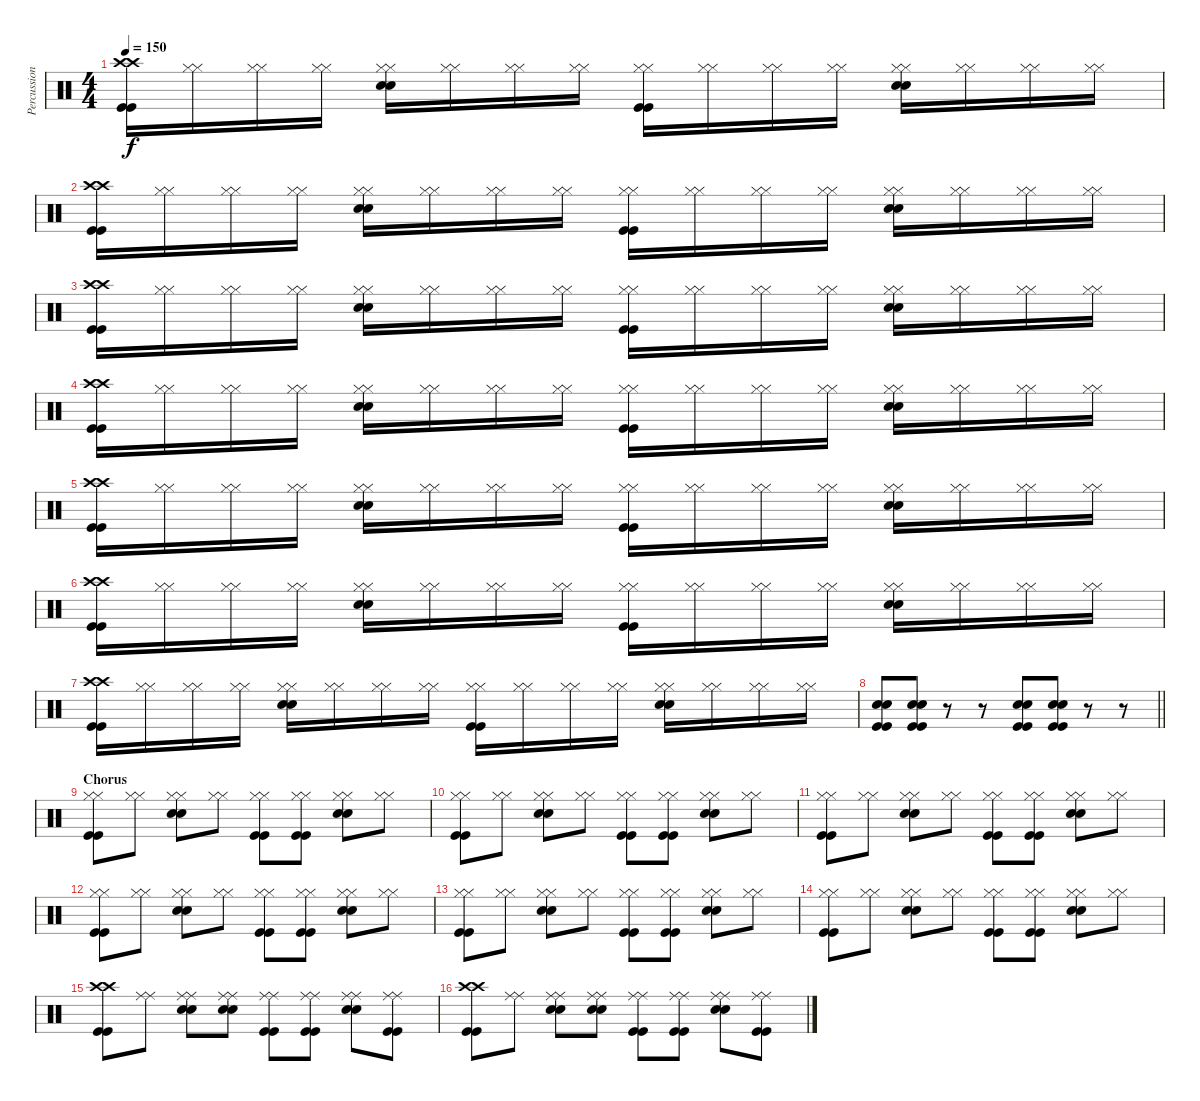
\track ("Percussion" "Percussion") {instrument percussion bank 129}
\staff
\articulation defaults
\ts (4 4)
\tempo 150
\clef neutral
\ks c
("Crash high (hit)" "Crash high (hit)" "Kick (hit)" "Kick (hit)").16{dy f} ("Hi-Hat (closed)" "Hi-Hat (closed)").16 ("Hi-Hat (closed)" "Hi-Hat (closed)").16 ("Hi-Hat (closed)" "Hi-Hat (closed)").16 ("Hi-Hat (closed)" "Hi-Hat (closed)" "Snare (hit) 2" "Snare (hit) 2").16 ("Hi-Hat (closed)" "Hi-Hat (closed)").16 ("Hi-Hat (closed)" "Hi-Hat (closed)").16 ("Hi-Hat (closed)" "Hi-Hat (closed)").16 ("Hi-Hat (closed)" "Hi-Hat (closed)" "Kick (hit)" "Kick (hit)").16 ("Hi-Hat (closed)" "Hi-Hat (closed)").16 ("Hi-Hat (closed)" "Hi-Hat (closed)").16 ("Hi-Hat (closed)" "Hi-Hat (closed)").16 ("Hi-Hat (closed)" "Hi-Hat (closed)" "Snare (hit) 2" "Snare (hit) 2").16 ("Hi-Hat (closed)" "Hi-Hat (closed)").16 ("Hi-Hat (closed)" "Hi-Hat (closed)").16 ("Hi-Hat (closed)" "Hi-Hat (closed)").16 |
("Crash high (hit)" "Crash high (hit)" "Kick (hit)" "Kick (hit)").16 ("Hi-Hat (closed)" "Hi-Hat (closed)").16 ("Hi-Hat (closed)" "Hi-Hat (closed)").16 ("Hi-Hat (closed)" "Hi-Hat (closed)").16 ("Hi-Hat (closed)" "Hi-Hat (closed)" "Snare (hit) 2" "Snare (hit) 2").16 ("Hi-Hat (closed)" "Hi-Hat (closed)").16 ("Hi-Hat (closed)" "Hi-Hat (closed)").16 ("Hi-Hat (closed)" "Hi-Hat (closed)").16 ("Hi-Hat (closed)" "Hi-Hat (closed)" "Kick (hit)" "Kick (hit)").16 ("Hi-Hat (closed)" "Hi-Hat (closed)").16 ("Hi-Hat (closed)" "Hi-Hat (closed)").16 ("Hi-Hat (closed)" "Hi-Hat (closed)").16 ("Hi-Hat (closed)" "Hi-Hat (closed)" "Snare (hit) 2" "Snare (hit) 2").16 ("Hi-Hat (closed)" "Hi-Hat (closed)").16 ("Hi-Hat (closed)" "Hi-Hat (closed)").16 ("Hi-Hat (closed)" "Hi-Hat (closed)").16 |
("Crash high (hit)" "Crash high (hit)" "Kick (hit)" "Kick (hit)").16 ("Hi-Hat (closed)" "Hi-Hat (closed)").16 ("Hi-Hat (closed)" "Hi-Hat (closed)").16 ("Hi-Hat (closed)" "Hi-Hat (closed)").16 ("Hi-Hat (closed)" "Hi-Hat (closed)" "Snare (hit) 2" "Snare (hit) 2").16 ("Hi-Hat (closed)" "Hi-Hat (closed)").16 ("Hi-Hat (closed)" "Hi-Hat (closed)").16 ("Hi-Hat (closed)" "Hi-Hat (closed)").16 ("Hi-Hat (closed)" "Hi-Hat (closed)" "Kick (hit)" "Kick (hit)").16 ("Hi-Hat (closed)" "Hi-Hat (closed)").16 ("Hi-Hat (closed)" "Hi-Hat (closed)").16 ("Hi-Hat (closed)" "Hi-Hat (closed)").16 ("Hi-Hat (closed)" "Hi-Hat (closed)" "Snare (hit) 2" "Snare (hit) 2").16 ("Hi-Hat (closed)" "Hi-Hat (closed)").16 ("Hi-Hat (closed)" "Hi-Hat (closed)").16 ("Hi-Hat (closed)" "Hi-Hat (closed)").16 |
("Crash high (hit)" "Crash high (hit)" "Kick (hit)" "Kick (hit)").16 ("Hi-Hat (closed)" "Hi-Hat (closed)").16 ("Hi-Hat (closed)" "Hi-Hat (closed)").16 ("Hi-Hat (closed)" "Hi-Hat (closed)").16 ("Hi-Hat (closed)" "Hi-Hat (closed)" "Snare (hit) 2" "Snare (hit) 2").16 ("Hi-Hat (closed)" "Hi-Hat (closed)").16 ("Hi-Hat (closed)" "Hi-Hat (closed)").16 ("Hi-Hat (closed)" "Hi-Hat (closed)").16 ("Hi-Hat (closed)" "Hi-Hat (closed)" "Kick (hit)" "Kick (hit)").16 ("Hi-Hat (closed)" "Hi-Hat (closed)").16 ("Hi-Hat (closed)" "Hi-Hat (closed)").16 ("Hi-Hat (closed)" "Hi-Hat (closed)").16 ("Hi-Hat (closed)" "Hi-Hat (closed)" "Snare (hit) 2" "Snare (hit) 2").16 ("Hi-Hat (closed)" "Hi-Hat (closed)").16 ("Hi-Hat (closed)" "Hi-Hat (closed)").16 ("Hi-Hat (closed)" "Hi-Hat (closed)").16 |
("Crash high (hit)" "Crash high (hit)" "Kick (hit)" "Kick (hit)").16 ("Hi-Hat (closed)" "Hi-Hat (closed)").16 ("Hi-Hat (closed)" "Hi-Hat (closed)").16 ("Hi-Hat (closed)" "Hi-Hat (closed)").16 ("Hi-Hat (closed)" "Hi-Hat (closed)" "Snare (hit) 2" "Snare (hit) 2").16 ("Hi-Hat (closed)" "Hi-Hat (closed)").16 ("Hi-Hat (closed)" "Hi-Hat (closed)").16 ("Hi-Hat (closed)" "Hi-Hat (closed)").16 ("Hi-Hat (closed)" "Hi-Hat (closed)" "Kick (hit)" "Kick (hit)").16 ("Hi-Hat (closed)" "Hi-Hat (closed)").16 ("Hi-Hat (closed)" "Hi-Hat (closed)").16 ("Hi-Hat (closed)" "Hi-Hat (closed)").16 ("Hi-Hat (closed)" "Hi-Hat (closed)" "Snare (hit) 2" "Snare (hit) 2").16 ("Hi-Hat (closed)" "Hi-Hat (closed)").16 ("Hi-Hat (closed)" "Hi-Hat (closed)").16 ("Hi-Hat (closed)" "Hi-Hat (closed)").16 |
("Crash high (hit)" "Crash high (hit)" "Kick (hit)" "Kick (hit)").16 ("Hi-Hat (closed)" "Hi-Hat (closed)").16 ("Hi-Hat (closed)" "Hi-Hat (closed)").16 ("Hi-Hat (closed)" "Hi-Hat (closed)").16 ("Hi-Hat (closed)" "Hi-Hat (closed)" "Snare (hit) 2" "Snare (hit) 2").16 ("Hi-Hat (closed)" "Hi-Hat (closed)").16 ("Hi-Hat (closed)" "Hi-Hat (closed)").16 ("Hi-Hat (closed)" "Hi-Hat (closed)").16 ("Hi-Hat (closed)" "Hi-Hat (closed)" "Kick (hit)" "Kick (hit)").16 ("Hi-Hat (closed)" "Hi-Hat (closed)").16 ("Hi-Hat (closed)" "Hi-Hat (closed)").16 ("Hi-Hat (closed)" "Hi-Hat (closed)").16 ("Hi-Hat (closed)" "Hi-Hat (closed)" "Snare (hit) 2" "Snare (hit) 2").16 ("Hi-Hat (closed)" "Hi-Hat (closed)").16 ("Hi-Hat (closed)" "Hi-Hat (closed)").16 ("Hi-Hat (closed)" "Hi-Hat (closed)").16 |
("Crash high (hit)" "Crash high (hit)" "Kick (hit)" "Kick (hit)").16 ("Hi-Hat (closed)" "Hi-Hat (closed)").16 ("Hi-Hat (closed)" "Hi-Hat (closed)").16 ("Hi-Hat (closed)" "Hi-Hat (closed)").16 ("Hi-Hat (closed)" "Hi-Hat (closed)" "Snare (hit) 2" "Snare (hit) 2").16 ("Hi-Hat (closed)" "Hi-Hat (closed)").16 ("Hi-Hat (closed)" "Hi-Hat (closed)").16 ("Hi-Hat (closed)" "Hi-Hat (closed)").16 ("Hi-Hat (closed)" "Hi-Hat (closed)" "Kick (hit)" "Kick (hit)").16 ("Hi-Hat (closed)" "Hi-Hat (closed)").16 ("Hi-Hat (closed)" "Hi-Hat (closed)").16 ("Hi-Hat (closed)" "Hi-Hat (closed)").16 ("Hi-Hat (closed)" "Hi-Hat (closed)" "Snare (hit) 2" "Snare (hit) 2").16 ("Hi-Hat (closed)" "Hi-Hat (closed)").16 ("Hi-Hat (closed)" "Hi-Hat (closed)").16 ("Hi-Hat (closed)" "Hi-Hat (closed)").16 |
\barLineRight lightlight
("Kick (hit)" "Kick (hit)" "Snare (hit) 2" "Snare (hit) 2").8 ("Kick (hit)" "Kick (hit)" "Snare (hit) 2" "Snare (hit) 2").8 r.8 r.8 ("Kick (hit)" "Kick (hit)" "Snare (hit) 2" "Snare (hit) 2").8 ("Kick (hit)" "Kick (hit)" "Snare (hit) 2" "Snare (hit) 2").8 r.8 r.8 |
\section ("" "Chorus")
("Hi-Hat (closed)" "Hi-Hat (closed)" "Kick (hit)" "Kick (hit)").8 ("Hi-Hat (closed)" "Hi-Hat (closed)").8 ("Hi-Hat (closed)" "Hi-Hat (closed)" "Snare (hit) 2" "Snare (hit) 2").8 ("Hi-Hat (closed)" "Hi-Hat (closed)").8 ("Hi-Hat (closed)" "Hi-Hat (closed)" "Kick (hit)" "Kick (hit)").8 ("Hi-Hat (closed)" "Hi-Hat (closed)" "Kick (hit)" "Kick (hit)").8 ("Hi-Hat (closed)" "Hi-Hat (closed)" "Snare (hit) 2" "Snare (hit) 2").8 ("Hi-Hat (closed)" "Hi-Hat (closed)").8 |
("Hi-Hat (closed)" "Hi-Hat (closed)" "Kick (hit)" "Kick (hit)").8 ("Hi-Hat (closed)" "Hi-Hat (closed)").8 ("Hi-Hat (closed)" "Hi-Hat (closed)" "Snare (hit) 2" "Snare (hit) 2").8 ("Hi-Hat (closed)" "Hi-Hat (closed)").8 ("Hi-Hat (closed)" "Hi-Hat (closed)" "Kick (hit)" "Kick (hit)").8 ("Hi-Hat (closed)" "Hi-Hat (closed)" "Kick (hit)" "Kick (hit)").8 ("Hi-Hat (closed)" "Hi-Hat (closed)" "Snare (hit) 2" "Snare (hit) 2").8 ("Hi-Hat (closed)" "Hi-Hat (closed)").8 |
("Hi-Hat (closed)" "Hi-Hat (closed)" "Kick (hit)" "Kick (hit)").8 ("Hi-Hat (closed)" "Hi-Hat (closed)").8 ("Hi-Hat (closed)" "Hi-Hat (closed)" "Snare (hit) 2" "Snare (hit) 2").8 ("Hi-Hat (closed)" "Hi-Hat (closed)").8 ("Hi-Hat (closed)" "Hi-Hat (closed)" "Kick (hit)" "Kick (hit)").8 ("Hi-Hat (closed)" "Hi-Hat (closed)" "Kick (hit)" "Kick (hit)").8 ("Hi-Hat (closed)" "Hi-Hat (closed)" "Snare (hit) 2" "Snare (hit) 2").8 ("Hi-Hat (closed)" "Hi-Hat (closed)").8 |
("Hi-Hat (closed)" "Hi-Hat (closed)" "Kick (hit)" "Kick (hit)").8 ("Hi-Hat (closed)" "Hi-Hat (closed)").8 ("Hi-Hat (closed)" "Hi-Hat (closed)" "Snare (hit) 2" "Snare (hit) 2").8 ("Hi-Hat (closed)" "Hi-Hat (closed)").8 ("Hi-Hat (closed)" "Hi-Hat (closed)" "Kick (hit)" "Kick (hit)").8 ("Hi-Hat (closed)" "Hi-Hat (closed)" "Kick (hit)" "Kick (hit)").8 ("Hi-Hat (closed)" "Hi-Hat (closed)" "Snare (hit) 2" "Snare (hit) 2").8 ("Hi-Hat (closed)" "Hi-Hat (closed)").8 |
("Hi-Hat (closed)" "Hi-Hat (closed)" "Kick (hit)" "Kick (hit)").8 ("Hi-Hat (closed)" "Hi-Hat (closed)").8 ("Hi-Hat (closed)" "Hi-Hat (closed)" "Snare (hit) 2" "Snare (hit) 2").8 ("Hi-Hat (closed)" "Hi-Hat (closed)").8 ("Hi-Hat (closed)" "Hi-Hat (closed)" "Kick (hit)" "Kick (hit)").8 ("Hi-Hat (closed)" "Hi-Hat (closed)" "Kick (hit)" "Kick (hit)").8 ("Hi-Hat (closed)" "Hi-Hat (closed)" "Snare (hit) 2" "Snare (hit) 2").8 ("Hi-Hat (closed)" "Hi-Hat (closed)").8 |
("Hi-Hat (closed)" "Hi-Hat (closed)" "Kick (hit)" "Kick (hit)").8 ("Hi-Hat (closed)" "Hi-Hat (closed)").8 ("Hi-Hat (closed)" "Hi-Hat (closed)" "Snare (hit) 2" "Snare (hit) 2").8 ("Hi-Hat (closed)" "Hi-Hat (closed)").8 ("Hi-Hat (closed)" "Hi-Hat (closed)" "Kick (hit)" "Kick (hit)").8 ("Hi-Hat (closed)" "Hi-Hat (closed)" "Kick (hit)" "Kick (hit)").8 ("Hi-Hat (closed)" "Hi-Hat (closed)" "Snare (hit) 2" "Snare (hit) 2").8 ("Hi-Hat (closed)" "Hi-Hat (closed)").8 |
("Crash high (hit)" "Crash high (hit)" "Kick (hit)" "Kick (hit)").8 ("Ride (middle)" "Ride (middle)").8 ("Ride (middle)" "Ride (middle)" "Snare (hit) 2" "Snare (hit) 2").8 ("Ride (middle)" "Ride (middle)" "Snare (hit) 2" "Snare (hit) 2").8 ("Ride (middle)" "Ride (middle)" "Kick (hit)" "Kick (hit)").8 ("Ride (middle)" "Ride (middle)" "Kick (hit)" "Kick (hit)").8 ("Ride (middle)" "Ride (middle)" "Snare (hit) 2" "Snare (hit) 2").8 ("Ride (middle)" "Ride (middle)" "Kick (hit)" "Kick (hit)").8 |
("Crash high (hit)" "Crash high (hit)" "Kick (hit)" "Kick (hit)").8 ("Ride (middle)" "Ride (middle)").8 ("Ride (middle)" "Ride (middle)" "Snare (hit) 2" "Snare (hit) 2").8 ("Ride (middle)" "Ride (middle)" "Snare (hit) 2" "Snare (hit) 2").8 ("Ride (middle)" "Ride (middle)" "Kick (hit)" "Kick (hit)").8 ("Ride (middle)" "Ride (middle)" "Kick (hit)" "Kick (hit)").8 ("Ride (middle)" "Ride (middle)" "Snare (hit) 2" "Snare (hit) 2").8 ("Ride (middle)" "Ride (middle)" "Kick (hit)" "Kick (hit)").8
